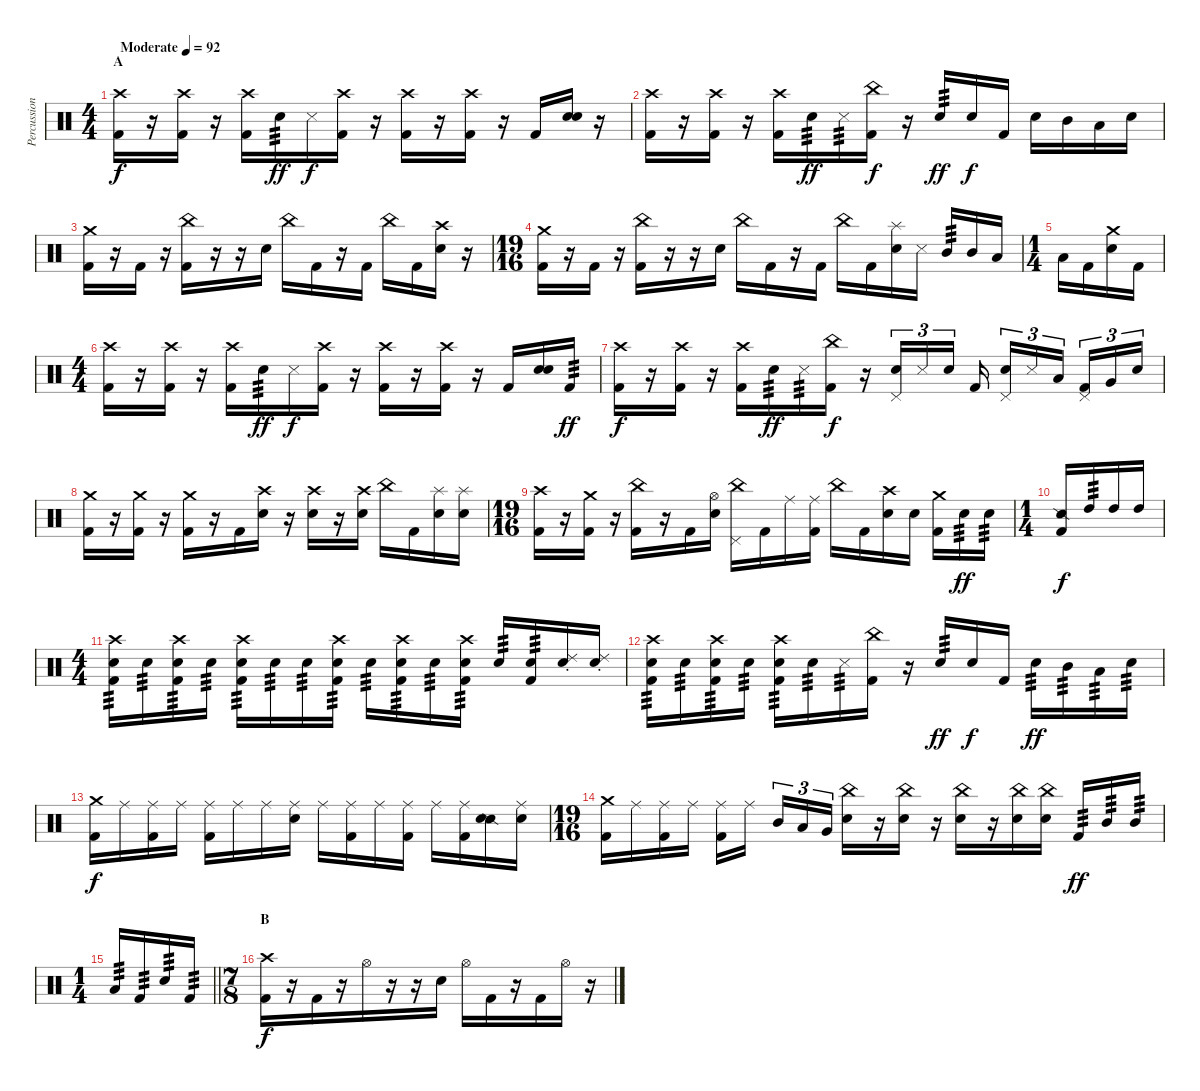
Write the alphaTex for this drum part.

\track ("Percussion" "Percussion") {instrument percussion}
\staff {score}
\articulation defaults
\ts (4 4)
\section ("" "A")
\tempo (92 "Moderate")
\clef neutral
\ks c
("Crash high (hit)" "Kick (hit) 2").16{dy f} r.16 ("Crash high (hit)" "Kick (hit) 2").16 r.16 ("Crash high (hit)" "Kick (hit) 2").16 "Snare (hit) 2".16{tp 3 dy ff} "Metronome (hit)".16{dy f} ("Crash high (hit)" "Kick (hit) 2").16 r.16 ("Crash high (hit)" "Kick (hit) 2").16 r.16 ("Crash high (hit)" "Kick (hit) 2").16 r.16 "Kick (hit) 2".16 ("Snare (hit)" "Snare (hit) 2").16 r.16 |
("Crash high (hit)" "Kick (hit) 2").16 r.16 ("Crash high (hit)" "Kick (hit) 2").16 r.16 ("Crash high (hit)" "Kick (hit) 2").16 "Snare (hit) 2".16{tp 3 dy ff} "Metronome (hit)".16{tp 3} ("China (hit)" "Kick (hit) 2").16{dy f} r.16 "Snare (hit) 2".16{tp 3 dy ff} "Snare (hit) 2".16{dy f} "Kick (hit) 2".16 "Snare (hit) 2".16 "Mid Tom (hit)".16 "Low Tom (hit)".16 "Snare (hit) 2".16 |
("Crash medium (hit)" "Kick (hit) 2").16 r.16 "Kick (hit) 2".16 r.16 ("China (hit)" "Kick (hit) 2").16 r.16 r.16 "Snare (hit) 2".16 "China (hit)".16 "Kick (hit) 2".16 r.16 "Kick (hit) 2".16 "China (hit)".16 "Kick (hit) 2".16 ("Crash high (hit)" "Snare (hit) 2").16 r.16 |
\ts (19 16)
("Crash medium (hit)" "Kick (hit) 2").16 r.16 "Kick (hit) 2".16 r.16 ("China (hit)" "Kick (hit) 2").16 r.16 r.16 "Snare (hit) 2".16 "China (hit)".16 "Kick (hit) 2".16 r.16 "Kick (hit) 2".16 "China (hit)".16 "Kick (hit) 2".16 ("Splash (hit)" "Snare (hit) 2").16 "Metronome (hit)".16 "Mid Tom (hit)".16{tp 3} "Mid Tom (hit)".16 "Low Tom (hit)".16 |
\ts (1 4)
"Low Tom (hit)".16 "Kick (hit) 2".16 ("Crash medium (hit)" "Snare (hit) 2").16 "Kick (hit) 2".16 |
\ts (4 4)
("Crash high (hit)" "Kick (hit) 2").16 r.16 ("Crash high (hit)" "Kick (hit) 2").16 r.16 ("Crash high (hit)" "Kick (hit) 2").16 "Snare (hit) 2".16{tp 3 dy ff} "Metronome (hit)".16{dy f} ("Crash high (hit)" "Kick (hit) 2").16 r.16 ("Crash high (hit)" "Kick (hit) 2").16 r.16 ("Crash high (hit)" "Kick (hit) 2").16 r.16 "Kick (hit) 2".16 ("Snare (hit)" "Snare (hit) 2").16 "Kick (hit) 2".16{tp 3 dy ff} |
("Crash high (hit)" "Kick (hit) 2").16{dy f} r.16 ("Crash high (hit)" "Kick (hit) 2").16 r.16 ("Crash high (hit)" "Kick (hit) 2").16 "Snare (hit) 2".16{tp 3 dy ff} "Metronome (hit)".16{tp 3} ("China (hit)" "Kick (hit) 2").16{dy f} r.16 ("Pedal Hi-Hat (hit)" "Snare (hit) 2").16{tu (3 2)} "Metronome (hit)".16{tu (3 2)} "Snare (hit) 2".16{tu (3 2) beam splitsecondary} "Kick (hit) 2".16 ("Pedal Hi-Hat (hit)" "Snare (hit) 2").16{tu (3 2)} "Metronome (hit)".16{tu (3 2)} "Low Tom (hit)".16{tu (3 2) beam splitsecondary} ("Pedal Hi-Hat (hit)" "Kick (hit) 2").16{tu (3 2)} "Very Low Tom (hit)".16{tu (3 2)} "Snare (hit) 2".16{tu (3 2)} |
("Crash medium (hit)" "Kick (hit) 2").16 r.16 ("Crash medium (hit)" "Kick (hit) 2").16 r.16 ("Crash medium (hit)" "Kick (hit) 2").16 r.16 "Kick (hit) 2".16 ("Crash high (hit)" "Snare (hit) 2").16 r.16 ("Crash high (hit)" "Snare (hit) 2").16 r.16 ("Crash high (hit)" "Snare (hit) 2").16 "China (hit)".16 "Kick (hit) 2".16 ("Splash (hit)" "Snare (hit) 2").16 ("Splash (hit)" "Snare (hit) 2").16 |
\ts (19 16)
("Crash high (hit)" "Kick (hit) 2").16 r.16 ("Crash medium (hit)" "Kick (hit) 2").16 r.16 ("China (hit)" "Kick (hit) 2").16 r.16 "Kick (hit) 2".16 ("Hi-Hat (open)" "Snare (hit) 2").16 ("China (hit)" "Pedal Hi-Hat (hit)").16 "Kick (hit) 2".16 "Ride (middle)".16 ("Ride (middle)" "Kick (hit) 2").16 "China (hit)".16 "Kick (hit) 2".16 ("Crash high (hit)" "Snare (hit) 2").16 "Snare (hit) 2".16 ("Crash medium (hit)" "Kick (hit) 2").16 "Snare (hit) 2".16{tp 3 dy ff} "Snare (hit) 2".16{tp 3} |
\ts (1 4)
("Snare (side stick) 2" "Kick (hit) 2").16{dy f} "High Tom (hit)".16{tp 3} "High Tom (hit)".16 "High Tom (hit)".16 |
\ts (4 4)
("Crash high (hit)" "Snare (hit) 2" "Kick (hit) 2").16{tp 3} "Snare (hit) 2".16{tp 3} ("Crash high (hit)" "Snare (hit) 2" "Kick (hit) 2").16{tp 3} "Snare (hit) 2".16{tp 3} ("Crash high (hit)" "Snare (hit) 2" "Kick (hit) 2").16{tp 3} "Snare (hit) 2".16{tp 3} "Snare (hit) 2".16{tp 3} ("Crash high (hit)" "Snare (hit) 2" "Kick (hit) 2").16{tp 3} "Snare (hit) 2".16{tp 3} ("Crash high (hit)" "Snare (hit) 2" "Kick (hit) 2").16{tp 3} "Snare (hit) 2".16{tp 3} ("Crash high (hit)" "Snare (hit) 2" "Kick (hit) 2").16{tp 3} "Snare (hit) 2".16{tp 3} ("Snare (hit) 2" "Kick (hit) 2").16{tp 3} ("Ride (choke) 2" "Snare (hit) 2").16 ("Ride (choke) 2" "Snare (hit) 2").16 |
("Crash high (hit)" "Snare (hit) 2" "Kick (hit) 2").16{tp 3} "Snare (hit) 2".16{tp 3} ("Crash high (hit)" "Snare (hit) 2" "Kick (hit) 2").16{tp 3} "Snare (hit) 2".16{tp 3} ("Crash high (hit)" "Snare (hit) 2" "Kick (hit) 2").16{tp 3} "Snare (hit) 2".16{tp 3} "Metronome (hit)".16{tp 3} ("China (hit)" "Kick (hit) 2").16 r.16 "Snare (hit) 2".16{tp 3 dy ff} "Snare (hit) 2".16{dy f} "Kick (hit) 2".16 "Snare (hit) 2".16{tp 3 dy ff} "Mid Tom (hit)".16{tp 3} "Low Tom (hit)".16{tp 3} "Snare (hit) 2".16{tp 3} |
("Crash medium (hit)" "Kick (hit) 2").16{dy f} "Ride (middle)".16 ("Ride (middle)" "Kick (hit) 2").16 "Ride (middle)".16 ("Ride (middle)" "Kick (hit) 2").16 "Ride (middle)".16 "Ride (middle)".16 ("Ride (middle)" "Snare (hit) 2").16 "Ride (middle)".16 ("Ride (middle)" "Kick (hit) 2").16 "Ride (middle)".16 ("Ride (middle)" "Kick (hit) 2").16 "Ride (middle)".16 ("Ride (middle)" "Kick (hit) 2").16 ("Snare (side stick) 2" "Snare (hit) 2").16 ("Ride (middle)" "Snare (hit) 2").16 |
\ts (19 16)
("Crash medium (hit)" "Kick (hit) 2").16 "Ride (middle)".16 ("Ride (middle)" "Kick (hit) 2").16 "Ride (middle)".16 ("Ride (middle)" "Kick (hit) 2").16 "Ride (middle)".16 "Mid Tom (hit)".16{tu (3 2)} "Low Tom (hit)".16{tu (3 2)} "Very Low Tom (hit)".16{tu (3 2)} ("China (hit)" "Snare (hit) 2").16 r.16 ("China (hit)" "Snare (hit) 2").16 r.16 ("China (hit)" "Snare (hit) 2").16 r.16 ("China (hit)" "Snare (hit) 2").16 ("China (hit)" "Snare (hit) 2").16 "Kick (hit) 2".16{tp 3 dy ff} "Mid Tom (hit)".16{tp 3} "Mid Tom (hit)".16{tp 3} |
\ts (1 4)
\barLineRight lightlight "Low Tom (hit)".16{tp 3} "Kick (hit) 2".16{tp 3} "Snare (hit) 2".16{tp 3} "Kick (hit) 2".16{tp 3}
|
\ts (7 8)
\section ("" "B")
("Crash high (hit)" "Kick (hit) 2").16{dy f} r.16 "Kick (hit) 2".16 r.16 "Hi-Hat (open)".16 r.16 r.16 "Snare (hit) 2".16 "Hi-Hat (open)".16 "Kick (hit) 2".16 r.16 "Kick (hit) 2".16 "Hi-Hat (open)".16 r.16
